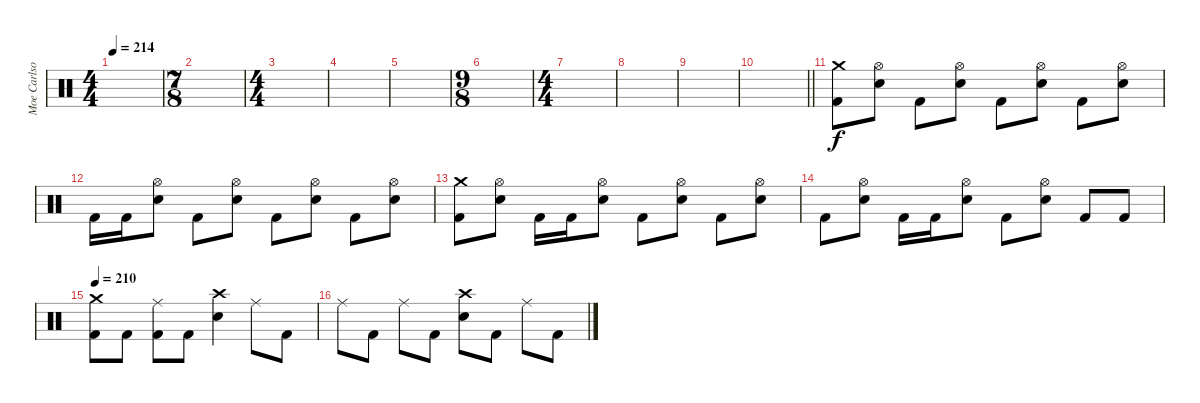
\track ("Moe Carlson" "Moe Carlso") {instrument percussion}
\staff {score}
\articulation defaults
\ts (4 4)
\tempo 214
\clef neutral
\ks c
|
\ts (7 8)
|
\ts (4 4)
|
|
|
\ts (9 8)
|
\ts (4 4)
|
|
|
\barLineRight lightlight
|
("Crash medium (hit)" "Kick (hit) 2").8 ("Hi-Hat (open)" "Electric Snare (hit)").8 "Kick (hit) 2".8 ("Hi-Hat (open)" "Electric Snare (hit)").8 "Kick (hit) 2".8 ("Hi-Hat (open)" "Electric Snare (hit)").8 "Kick (hit) 2".8 ("Hi-Hat (open)" "Electric Snare (hit)").8 |
"Kick (hit) 2".16 "Kick (hit) 2".16 ("Hi-Hat (open)" "Electric Snare (hit)").8 "Kick (hit) 2".8 ("Hi-Hat (open)" "Electric Snare (hit)").8 "Kick (hit) 2".8 ("Hi-Hat (open)" "Electric Snare (hit)").8 "Kick (hit) 2".8 ("Hi-Hat (open)" "Electric Snare (hit)").8 |
("Crash medium (hit)" "Kick (hit) 2").8 ("Hi-Hat (open)" "Electric Snare (hit)").8 "Kick (hit) 2".16 "Kick (hit) 2".16 ("Hi-Hat (open)" "Electric Snare (hit)").8 "Kick (hit) 2".8 ("Hi-Hat (open)" "Electric Snare (hit)").8 "Kick (hit) 2".8 ("Hi-Hat (open)" "Electric Snare (hit)").8 |
"Kick (hit) 2".8 ("Hi-Hat (open)" "Electric Snare (hit)").8 "Kick (hit) 2".16 "Kick (hit) 2".16 ("Hi-Hat (open)" "Electric Snare (hit)").8 "Kick (hit) 2".8 ("Hi-Hat (open)" "Electric Snare (hit)").8 "Kick (hit) 2".8 "Kick (hit) 2".8 |
\tempo 210
("Crash medium (hit)" "Kick (hit) 2").8 "Kick (hit) 2".8 ("Ride (middle)" "Kick (hit) 2").8 "Kick (hit) 2".8 ("Crash high (hit)" "Electric Snare (hit)").4 "Ride (middle)".8 "Kick (hit) 2".8 |
"Ride (middle)".8 "Kick (hit) 2".8 "Ride (middle)".8 "Kick (hit) 2".8 ("Crash high (hit)" "Electric Snare (hit)").8 "Kick (hit) 2".8 "Ride (middle)".8 "Kick (hit) 2".8
